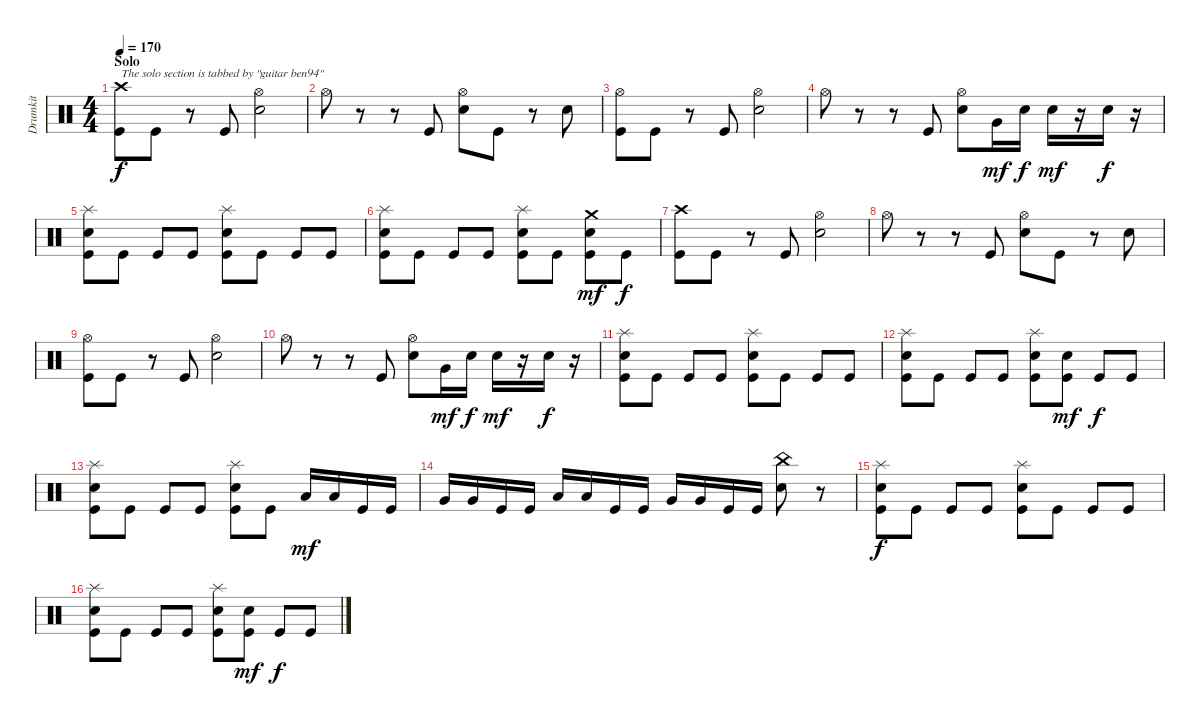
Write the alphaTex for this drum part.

\track ("Drumkit" "Drumkit") {instrument percussion}
\staff {score}
\articulation defaults
\ts (4 4)
\section ("" "Solo")
\tempo 170
\clef neutral
\ks c
("Crash high (hit)" "Kick (hit)").8{txt "The solo section is tabbed by \"guitar ben94\"" dy f} "Kick (hit)".8 r.8 "Kick (hit)".8 ("Hi-Hat (open)" "Snare (hit) 2").2 |
"Hi-Hat (open)".8 r.8 r.8 "Kick (hit)".8 ("Hi-Hat (open)" "Snare (hit) 2").8 "Kick (hit)".8 r.8 "Snare (hit) 2".8 |
("Hi-Hat (open)" "Kick (hit)").8 "Kick (hit)".8 r.8 "Kick (hit)".8 ("Hi-Hat (open)" "Snare (hit) 2").2 |
"Hi-Hat (open)".8 r.8 r.8 "Kick (hit)".8 ("Hi-Hat (open)" "Snare (hit) 2").8 "Very Low Tom (hit)".16{dy mf} "Snare (hit) 2".16{dy f} "Snare (hit) 2".16{dy mf} r.16 "Snare (hit) 2".16{dy f} r.16 |
("Splash (hit)" "Snare (hit) 2" "Kick (hit)").8 "Kick (hit)".8 "Kick (hit)".8 "Kick (hit)".8 ("Splash (hit)" "Snare (hit) 2" "Kick (hit)").8 "Kick (hit)".8 "Kick (hit)".8 "Kick (hit)".8 |
("Splash (hit)" "Snare (hit) 2" "Kick (hit)").8 "Kick (hit)".8 "Kick (hit)".8 "Kick (hit)".8 ("Splash (hit)" "Snare (hit) 2" "Kick (hit)").8 "Kick (hit)".8 ("Crash medium (hit)" "Snare (hit) 2" "Kick (hit)").8{dy mf} "Kick (hit)".8{dy f} |
("Crash high (hit)" "Kick (hit)").8 "Kick (hit)".8 r.8 "Kick (hit)".8 ("Hi-Hat (open)" "Snare (hit) 2").2 |
"Hi-Hat (open)".8 r.8 r.8 "Kick (hit)".8 ("Hi-Hat (open)" "Snare (hit) 2").8 "Kick (hit)".8 r.8 "Snare (hit) 2".8 |
("Hi-Hat (open)" "Kick (hit)").8 "Kick (hit)".8 r.8 "Kick (hit)".8 ("Hi-Hat (open)" "Snare (hit) 2").2 |
"Hi-Hat (open)".8 r.8 r.8 "Kick (hit)".8 ("Hi-Hat (open)" "Snare (hit) 2").8 "Very Low Tom (hit)".16{dy mf} "Snare (hit) 2".16{dy f} "Snare (hit) 2".16{dy mf} r.16 "Snare (hit) 2".16{dy f} r.16 |
("Splash (hit)" "Snare (hit) 2" "Kick (hit)").8 "Kick (hit)".8 "Kick (hit)".8 "Kick (hit)".8 ("Splash (hit)" "Snare (hit) 2" "Kick (hit)").8 "Kick (hit)".8 "Kick (hit)".8 "Kick (hit)".8 |
("Splash (hit)" "Snare (hit) 2" "Kick (hit)").8 "Kick (hit)".8 "Kick (hit)".8 "Kick (hit)".8 ("Splash (hit)" "Snare (hit) 2" "Kick (hit)").8 ("Snare (hit) 2" "Kick (hit)").8{dy mf} "Kick (hit)".8{dy f} "Kick (hit)".8 |
("Splash (hit)" "Snare (hit) 2" "Kick (hit)").8 "Kick (hit)".8 "Kick (hit)".8 "Kick (hit)".8 ("Splash (hit)" "Snare (hit) 2" "Kick (hit)").8 "Kick (hit)".8 "Low Tom (hit)".16{dy mf} "Low Tom (hit)".16 "Kick (hit)".16 "Kick (hit)".16 |
"Very Low Tom (hit)".16 "Very Low Tom (hit)".16 "Kick (hit)".16 "Kick (hit)".16 "Low Floor Tom (hit)".16 "Low Floor Tom (hit)".16 "Kick (hit)".16 "Kick (hit)".16 "Very Low Tom (hit)".16 "Very Low Tom (hit)".16 "Kick (hit)".16 "Kick (hit)".16 ("China (hit)" "Snare (hit) 2").8 r.8 |
("Splash (hit)" "Snare (hit) 2" "Kick (hit)").8{dy f} "Kick (hit)".8 "Kick (hit)".8 "Kick (hit)".8 ("Splash (hit)" "Snare (hit) 2" "Kick (hit)").8 "Kick (hit)".8 "Kick (hit)".8 "Kick (hit)".8 |
("Splash (hit)" "Snare (hit) 2" "Kick (hit)").8 "Kick (hit)".8 "Kick (hit)".8 "Kick (hit)".8 ("Splash (hit)" "Snare (hit) 2" "Kick (hit)").8 ("Snare (hit) 2" "Kick (hit)").8{dy mf} "Kick (hit)".8{dy f} "Kick (hit)".8
